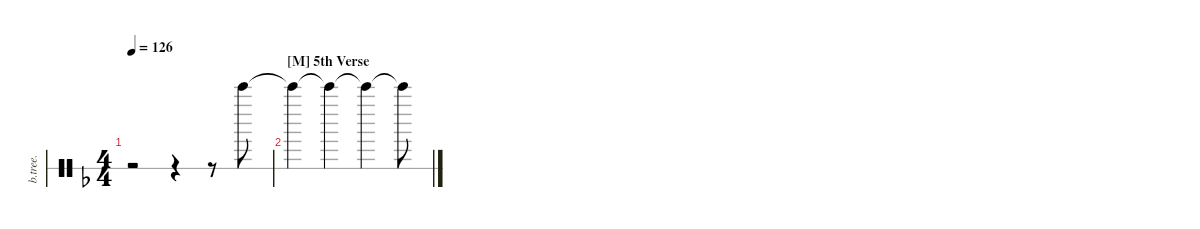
\defaultSystemsLayout 4
\hideDynamics
\bracketExtendMode nobrackets
\track ("Bell Tree" "b.tree.") {instrument percussion}
\staff {score 1}
\articulation defaults
\ts (4 4)
\tempo 126
\clef neutral
\ks f
r.2{dy mf} r.4 r.8 "Bell Tree (hit)"{acc forcenatural}.8 |
\section ("M" "5th Verse")
"Bell Tree (hit)"{t acc forcenatural}.4 "Bell Tree (hit)"{t acc forcenatural}.4 "Bell Tree (hit)"{t acc forcenatural}.4 "Bell Tree (hit)"{t acc forcenatural}.8
